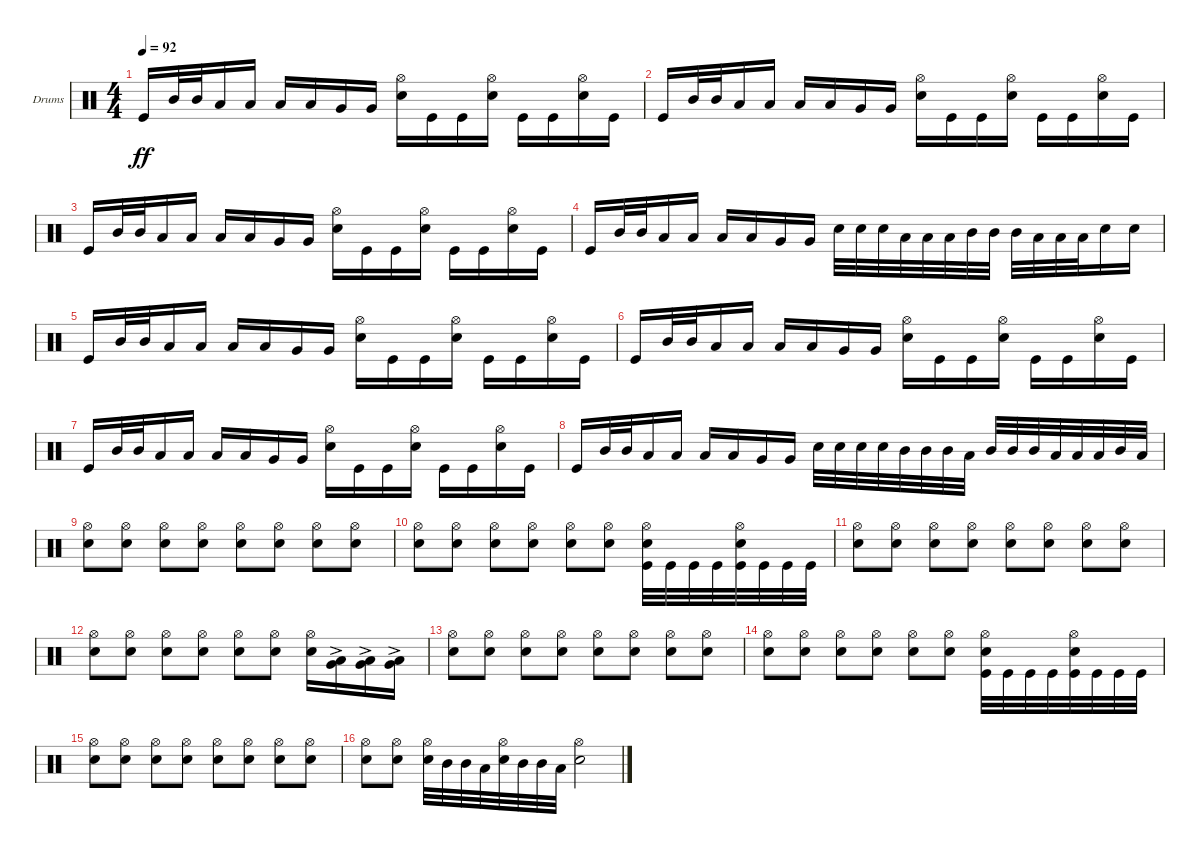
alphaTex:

\defaultSystemsLayout 4
\bracketExtendMode groupsimilarinstruments
\firstSystemTrackNameOrientation horizontal
\otherSystemsTrackNameOrientation horizontal
\track ("Drumkit" "Drums") {instrument percussion}
\staff {score}
\articulation defaults
\ts (4 4)
\tempo 92
\clef neutral
\ks c "Kick (hit)".16{dy ff} "Mid Tom (hit)".32 "Mid Tom (hit)".32 "Low Tom (hit)".16 "Low Tom (hit)".16 "Low Tom (hit)".16 "Low Tom (hit)".16 "Very Low Tom (hit)".16 "Very Low Tom (hit)".16
("Snare (hit) 2" "Hi-Hat (open)").16 "Kick (hit)".16 "Kick (hit)".16 ("Snare (hit) 2" "Hi-Hat (open)").16 "Kick (hit)".16 "Kick (hit)".16 ("Snare (hit) 2" "Hi-Hat (open)").16 "Kick (hit)".16 |
"Kick (hit)".16 "Mid Tom (hit)".32 "Mid Tom (hit)".32 "Low Tom (hit)".16 "Low Tom (hit)".16 "Low Tom (hit)".16 "Low Tom (hit)".16 "Very Low Tom (hit)".16 "Very Low Tom (hit)".16 ("Snare (hit) 2" "Hi-Hat (open)").16 "Kick (hit)".16 "Kick (hit)".16 ("Snare (hit) 2" "Hi-Hat (open)").16 "Kick (hit)".16 "Kick (hit)".16 ("Snare (hit) 2" "Hi-Hat (open)").16 "Kick (hit)".16 |
"Kick (hit)".16 "Mid Tom (hit)".32 "Mid Tom (hit)".32 "Low Tom (hit)".16 "Low Tom (hit)".16 "Low Tom (hit)".16 "Low Tom (hit)".16 "Very Low Tom (hit)".16 "Very Low Tom (hit)".16 ("Snare (hit) 2" "Hi-Hat (open)").16 "Kick (hit)".16 "Kick (hit)".16 ("Snare (hit) 2" "Hi-Hat (open)").16 "Kick (hit)".16 "Kick (hit)".16 ("Snare (hit) 2" "Hi-Hat (open)").16 "Kick (hit)".16 |
"Kick (hit)".16 "Mid Tom (hit)".32 "Mid Tom (hit)".32 "Low Tom (hit)".16 "Low Tom (hit)".16 "Low Tom (hit)".16 "Low Tom (hit)".16 "Very Low Tom (hit)".16 "Very Low Tom (hit)".16 "Snare (hit) 2".32 "Snare (hit) 2".32 "Snare (hit) 2".32 "Low Tom (hit)".32 "Low Tom (hit)".32 "Low Tom (hit)".32 "Mid Tom (hit)".32 "Mid Tom (hit)".32 "Mid Tom (hit)".32 "Low Tom (hit)".32 "Low Tom (hit)".32 "Low Tom (hit)".32 "Snare (hit) 2".16 "Snare (hit) 2".16 |
"Kick (hit)".16 "Mid Tom (hit)".32 "Mid Tom (hit)".32 "Low Tom (hit)".16 "Low Tom (hit)".16 "Low Tom (hit)".16 "Low Tom (hit)".16 "Very Low Tom (hit)".16 "Very Low Tom (hit)".16 ("Snare (hit) 2" "Hi-Hat (open)").16 "Kick (hit)".16 "Kick (hit)".16 ("Snare (hit) 2" "Hi-Hat (open)").16 "Kick (hit)".16 "Kick (hit)".16 ("Snare (hit) 2" "Hi-Hat (open)").16 "Kick (hit)".16 |
"Kick (hit)".16 "Mid Tom (hit)".32 "Mid Tom (hit)".32 "Low Tom (hit)".16 "Low Tom (hit)".16 "Low Tom (hit)".16 "Low Tom (hit)".16 "Very Low Tom (hit)".16 "Very Low Tom (hit)".16 ("Snare (hit) 2" "Hi-Hat (open)").16 "Kick (hit)".16 "Kick (hit)".16 ("Snare (hit) 2" "Hi-Hat (open)").16 "Kick (hit)".16 "Kick (hit)".16 ("Snare (hit) 2" "Hi-Hat (open)").16 "Kick (hit)".16 |
"Kick (hit)".16 "Mid Tom (hit)".32 "Mid Tom (hit)".32 "Low Tom (hit)".16 "Low Tom (hit)".16 "Low Tom (hit)".16 "Low Tom (hit)".16 "Very Low Tom (hit)".16 "Very Low Tom (hit)".16 ("Snare (hit) 2" "Hi-Hat (open)").16 "Kick (hit)".16 "Kick (hit)".16 ("Snare (hit) 2" "Hi-Hat (open)").16 "Kick (hit)".16 "Kick (hit)".16 ("Snare (hit) 2" "Hi-Hat (open)").16 "Kick (hit)".16 |
"Kick (hit)".16 "Mid Tom (hit)".32 "Mid Tom (hit)".32 "Low Tom (hit)".16 "Low Tom (hit)".16 "Low Tom (hit)".16 "Low Tom (hit)".16 "Very Low Tom (hit)".16 "Very Low Tom (hit)".16 "Snare (hit) 2".32 "Snare (hit) 2".32 "Snare (hit) 2".32 "Snare (hit) 2".32 "Mid Tom (hit)".32 "Mid Tom (hit)".32 "Mid Tom (hit)".32 "Low Tom (hit)".32 "Mid Tom (hit)".32 "Mid Tom (hit)".32 "Mid Tom (hit)".32 "Low Tom (hit)".32 "Low Tom (hit)".32 "Low Tom (hit)".32 "Mid Tom (hit)".32 "Low Tom (hit)".32 |
("Snare (hit) 2" "Hi-Hat (open)").8 ("Snare (hit) 2" "Hi-Hat (open)").8 ("Snare (hit) 2" "Hi-Hat (open)").8 ("Snare (hit) 2" "Hi-Hat (open)").8 ("Snare (hit) 2" "Hi-Hat (open)").8 ("Snare (hit) 2" "Hi-Hat (open)").8 ("Snare (hit) 2" "Hi-Hat (open)").8 ("Snare (hit) 2" "Hi-Hat (open)").8 |
("Snare (hit) 2" "Hi-Hat (open)").8 ("Snare (hit) 2" "Hi-Hat (open)").8 ("Snare (hit) 2" "Hi-Hat (open)").8 ("Snare (hit) 2" "Hi-Hat (open)").8 ("Snare (hit) 2" "Hi-Hat (open)").8 ("Snare (hit) 2" "Hi-Hat (open)").8 ("Kick (hit)" "Snare (hit) 2" "Hi-Hat (open)").32 "Kick (hit)".32 "Kick (hit)".32 "Kick (hit)".32 ("Kick (hit)" "Snare (hit) 2" "Hi-Hat (open)").32 "Kick (hit)".32 "Kick (hit)".32 "Kick (hit)".32 |
("Snare (hit) 2" "Hi-Hat (open)").8 ("Snare (hit) 2" "Hi-Hat (open)").8 ("Snare (hit) 2" "Hi-Hat (open)").8 ("Snare (hit) 2" "Hi-Hat (open)").8 ("Snare (hit) 2" "Hi-Hat (open)").8 ("Snare (hit) 2" "Hi-Hat (open)").8 ("Snare (hit) 2" "Hi-Hat (open)").8 ("Snare (hit) 2" "Hi-Hat (open)").8 |
("Snare (hit) 2" "Hi-Hat (open)").8 ("Snare (hit) 2" "Hi-Hat (open)").8 ("Snare (hit) 2" "Hi-Hat (open)").8 ("Snare (hit) 2" "Hi-Hat (open)").8 ("Snare (hit) 2" "Hi-Hat (open)").8 ("Snare (hit) 2" "Hi-Hat (open)").8 ("Snare (hit) 2" "Hi-Hat (open)").16 ("Very Low Tom (hit)"{ac} "Low Tom (hit)"{ac}).16 ("Very Low Tom (hit)"{ac} "Low Tom (hit)"{ac}).16 ("Very Low Tom (hit)"{ac} "Low Tom (hit)"{ac}).16 |
("Snare (hit) 2" "Hi-Hat (open)").8 ("Snare (hit) 2" "Hi-Hat (open)").8 ("Snare (hit) 2" "Hi-Hat (open)").8 ("Snare (hit) 2" "Hi-Hat (open)").8 ("Snare (hit) 2" "Hi-Hat (open)").8 ("Snare (hit) 2" "Hi-Hat (open)").8 ("Snare (hit) 2" "Hi-Hat (open)").8 ("Snare (hit) 2" "Hi-Hat (open)").8 |
("Snare (hit) 2" "Hi-Hat (open)").8 ("Snare (hit) 2" "Hi-Hat (open)").8 ("Snare (hit) 2" "Hi-Hat (open)").8 ("Snare (hit) 2" "Hi-Hat (open)").8 ("Snare (hit) 2" "Hi-Hat (open)").8 ("Snare (hit) 2" "Hi-Hat (open)").8 ("Kick (hit)" "Snare (hit) 2" "Hi-Hat (open)").32 "Kick (hit)".32 "Kick (hit)".32 "Kick (hit)".32 ("Kick (hit)" "Snare (hit) 2" "Hi-Hat (open)").32 "Kick (hit)".32 "Kick (hit)".32 "Kick (hit)".32 |
("Snare (hit) 2" "Hi-Hat (open)").8 ("Snare (hit) 2" "Hi-Hat (open)").8 ("Snare (hit) 2" "Hi-Hat (open)").8 ("Snare (hit) 2" "Hi-Hat (open)").8 ("Snare (hit) 2" "Hi-Hat (open)").8 ("Snare (hit) 2" "Hi-Hat (open)").8 ("Snare (hit) 2" "Hi-Hat (open)").8 ("Snare (hit) 2" "Hi-Hat (open)").8 |
("Snare (hit) 2" "Hi-Hat (open)").8 ("Snare (hit) 2" "Hi-Hat (open)").8 ("Snare (hit) 2" "Hi-Hat (open)").32 "Mid Tom (hit)".32 "Mid Tom (hit)".32 "Low Tom (hit)".32 ("Snare (hit) 2" "Hi-Hat (open)").32 "Mid Tom (hit)".32 "Mid Tom (hit)".32 "Low Tom (hit)".32 ("Snare (hit) 2" "Hi-Hat (open)").2
